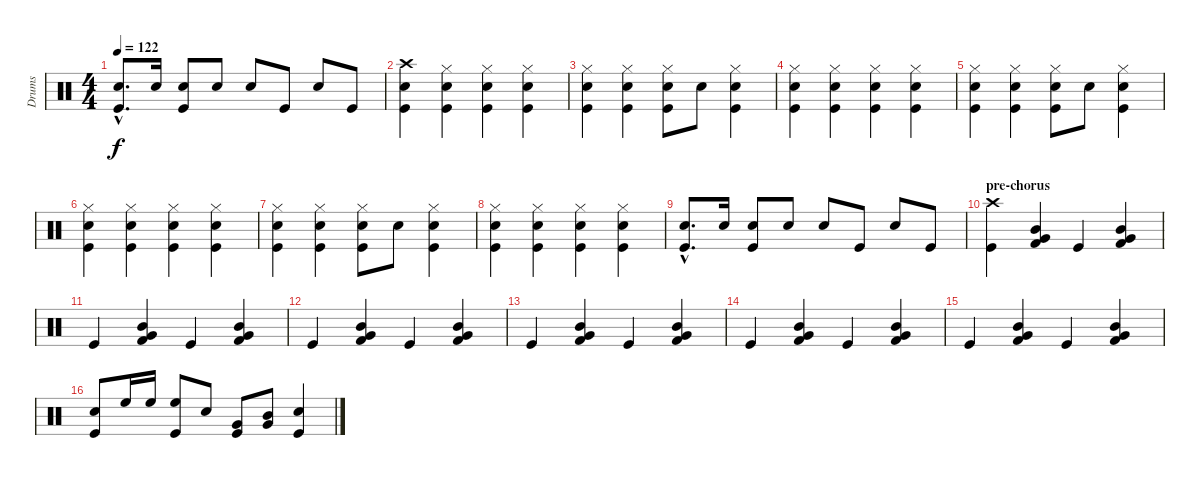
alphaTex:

\track ("Drums" "Drums") {instrument percussion}
\staff {score}
\articulation defaults
\ts (4 4)
\tempo 122
\clef neutral
\ks c
("Electric Snare (hit)"{hac} "Kick (hit)"{hac}).8{d dy f} "Electric Snare (hit)".16 ("Electric Snare (hit)" "Kick (hit)").8 "Electric Snare (hit)".8 "Electric Snare (hit)".8 "Kick (hit)".8 "Electric Snare (hit)".8 "Kick (hit)".8 |
("Crash high (hit)" "Electric Snare (hit)" "Kick (hit)").4 ("Hi-Hat (closed)" "Electric Snare (hit)" "Kick (hit)").4 ("Hi-Hat (closed)" "Electric Snare (hit)" "Kick (hit)").4 ("Hi-Hat (closed)" "Electric Snare (hit)" "Kick (hit)").4 |
("Hi-Hat (closed)" "Electric Snare (hit)" "Kick (hit)").4 ("Hi-Hat (closed)" "Electric Snare (hit)" "Kick (hit)").4 ("Hi-Hat (closed)" "Electric Snare (hit)" "Kick (hit)").8 "Electric Snare (hit)".8 ("Hi-Hat (closed)" "Electric Snare (hit)" "Kick (hit)").4 |
("Hi-Hat (closed)" "Electric Snare (hit)" "Kick (hit)").4 ("Hi-Hat (closed)" "Electric Snare (hit)" "Kick (hit)").4 ("Hi-Hat (closed)" "Electric Snare (hit)" "Kick (hit)").4 ("Hi-Hat (closed)" "Electric Snare (hit)" "Kick (hit)").4 |
("Hi-Hat (closed)" "Electric Snare (hit)" "Kick (hit)").4 ("Hi-Hat (closed)" "Electric Snare (hit)" "Kick (hit)").4 ("Hi-Hat (closed)" "Electric Snare (hit)" "Kick (hit)").8 "Electric Snare (hit)".8 ("Hi-Hat (closed)" "Electric Snare (hit)" "Kick (hit)").4 |
("Hi-Hat (closed)" "Electric Snare (hit)" "Kick (hit)").4 ("Hi-Hat (closed)" "Electric Snare (hit)" "Kick (hit)").4 ("Hi-Hat (closed)" "Electric Snare (hit)" "Kick (hit)").4 ("Hi-Hat (closed)" "Electric Snare (hit)" "Kick (hit)").4 |
("Hi-Hat (closed)" "Electric Snare (hit)" "Kick (hit)").4 ("Hi-Hat (closed)" "Electric Snare (hit)" "Kick (hit)").4 ("Hi-Hat (closed)" "Electric Snare (hit)" "Kick (hit)").8 "Electric Snare (hit)".8 ("Hi-Hat (closed)" "Electric Snare (hit)" "Kick (hit)").4 |
("Hi-Hat (closed)" "Electric Snare (hit)" "Kick (hit)").4 ("Hi-Hat (closed)" "Electric Snare (hit)" "Kick (hit)").4 ("Hi-Hat (closed)" "Electric Snare (hit)" "Kick (hit)").4 ("Hi-Hat (closed)" "Electric Snare (hit)" "Kick (hit)").4 |
("Electric Snare (hit)"{hac} "Kick (hit)"{hac}).8{d} "Electric Snare (hit)".16 ("Electric Snare (hit)" "Kick (hit)").8 "Electric Snare (hit)".8 "Electric Snare (hit)".8 "Kick (hit)".8 "Electric Snare (hit)".8 "Kick (hit)".8 |
\section ("" "pre-chorus")
("Crash high (hit)" "Kick (hit)").4 ("Mid Tom (hit)" "Very Low Tom (hit)" "Kick (hit) 2").4 "Kick (hit)".4 ("Mid Tom (hit)" "Very Low Tom (hit)" "Kick (hit) 2").4 |
"Kick (hit)".4 ("Mid Tom (hit)" "Very Low Tom (hit)" "Kick (hit) 2").4 "Kick (hit)".4 ("Mid Tom (hit)" "Very Low Tom (hit)" "Kick (hit) 2").4 |
"Kick (hit)".4 ("Mid Tom (hit)" "Very Low Tom (hit)" "Kick (hit) 2").4 "Kick (hit)".4 ("Mid Tom (hit)" "Very Low Tom (hit)" "Kick (hit) 2").4 |
"Kick (hit)".4 ("Mid Tom (hit)" "Very Low Tom (hit)" "Kick (hit) 2").4 "Kick (hit)".4 ("Mid Tom (hit)" "Very Low Tom (hit)" "Kick (hit) 2").4 |
"Kick (hit)".4 ("Mid Tom (hit)" "Very Low Tom (hit)" "Kick (hit) 2").4 "Kick (hit)".4 ("Mid Tom (hit)" "Very Low Tom (hit)" "Kick (hit) 2").4 |
"Kick (hit)".4 ("Mid Tom (hit)" "Very Low Tom (hit)" "Kick (hit) 2").4 "Kick (hit)".4 ("Mid Tom (hit)" "Very Low Tom (hit)" "Kick (hit) 2").4 |
("Electric Snare (hit)" "Kick (hit)").8 "High Floor Tom (hit)".16 "High Floor Tom (hit)".16 ("High Floor Tom (hit)" "Kick (hit)").8 "Electric Snare (hit)".8 ("Very Low Tom (hit)" "Kick (hit)").8 ("Mid Tom (hit)" "Very Low Tom (hit)").8 ("Electric Snare (hit)" "Kick (hit)").4
